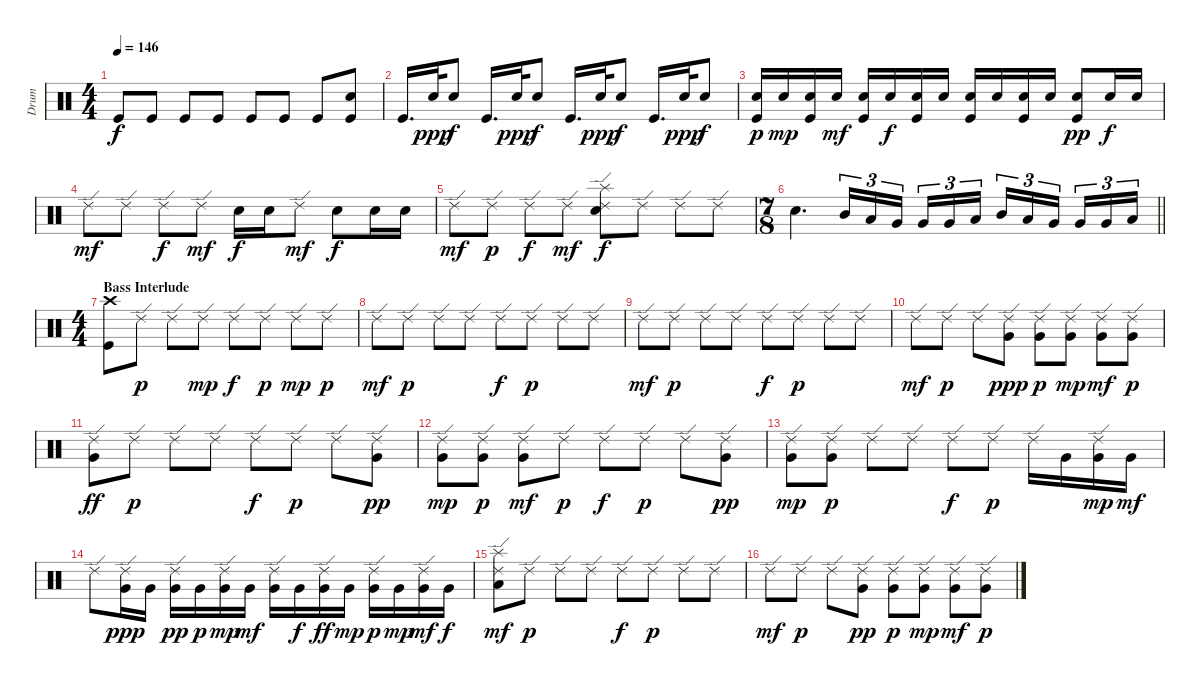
\track ("Drum" "Drum") {instrument percussion}
\staff {score}
\articulation defaults
\ts (4 4)
\tempo 146
\clef neutral
\ks c "Kick (hit)".8{dy f} "Kick (hit)".8 "Kick (hit)".8 "Kick (hit)".8 "Kick (hit)".8 "Kick (hit)".8 "Kick (hit)".8
("Snare (hit) 2" "Kick (hit)").8 |
"Kick (hit)".16{d} "Snare (hit) 2".32{dy ppp} "Snare (hit) 2".8{dy f} "Kick (hit)".16{d} "Snare (hit) 2".32{dy ppp} "Snare (hit) 2".8{dy f} "Kick (hit)".16{d} "Snare (hit) 2".32{dy ppp} "Snare (hit) 2".8{dy f} "Kick (hit)".16{d} "Snare (hit) 2".32{dy ppp} "Snare (hit) 2".8{dy f} |
("Snare (hit) 2" "Kick (hit)").16{dy p} "Snare (hit) 2".16{dy mp} ("Snare (hit) 2" "Kick (hit)").16 "Snare (hit) 2".16{dy mf} ("Snare (hit) 2" "Kick (hit)").16 "Snare (hit) 2".16{dy f} ("Snare (hit) 2" "Kick (hit)").16 "Snare (hit) 2".16 ("Snare (hit) 2" "Kick (hit)").16 "Snare (hit) 2".16 ("Snare (hit) 2" "Kick (hit)").16 "Snare (hit) 2".16 ("Snare (hit) 2" "Kick (hit)").8{dy pp} "Snare (hit) 2".16{dy f} "Snare (hit) 2".16 |
"Ride (edge) 2".8{dy mf} "Ride (edge) 2".8 "Ride (edge) 2".8{dy f} "Ride (edge) 2".8{dy mf} "Snare (hit) 2".16{dy f} "Snare (hit) 2".16 "Ride (edge) 2".8{dy mf} "Snare (hit) 2".8{dy f} "Snare (hit) 2".16 "Snare (hit) 2".16 |
"Ride (edge) 2".8{dy mf} "Ride (edge) 2".8{dy p} "Ride (edge) 2".8{dy f} "Ride (edge) 2".8{dy mf} ("Ride (edge) 2" "Splash (hit)" "Snare (hit) 2").8{dy f} "Ride (edge) 2".8 "Ride (edge) 2".8 "Ride (edge) 2".8 |
\ts (7 8)
\barLineRight lightlight "Snare (hit) 2".4{d} "Mid Tom (hit)".16{tu (3 2)} "Low Tom (hit)".16{tu (3 2)} "Very Low Tom (hit)".16{tu (3 2)} "Very Low Tom (hit)".16{tu (3 2)} "Very Low Tom (hit)".16{tu (3 2)} "Low Tom (hit)".16{tu (3 2)} "Mid Tom (hit)".16{tu (3 2)} "Low Tom (hit)".16{tu (3 2)} "Very Low Tom (hit)".16{tu (3 2)} "Very Low Tom (hit)".16{tu (3 2)} "Very Low Tom (hit)".16{tu (3 2)} "Low Tom (hit)".16{tu (3 2)}
|
\ts (4 4)
\section ("" "Bass Interlude")
("Crash high (hit)" "Kick (hit)").8 "Ride (edge) 2".8{dy p} "Ride (edge) 2".8 "Ride (edge) 2".8{dy mp} "Ride (edge) 2".8{dy f} "Ride (edge) 2".8{dy p} "Ride (edge) 2".8{dy mp} "Ride (edge) 2".8{dy p} |
"Ride (edge) 2".8{dy mf} "Ride (edge) 2".8{dy p} "Ride (edge) 2".8 "Ride (edge) 2".8 "Ride (edge) 2".8{dy f} "Ride (edge) 2".8{dy p} "Ride (edge) 2".8 "Ride (edge) 2".8 |
"Ride (edge) 2".8{dy mf} "Ride (edge) 2".8{dy p} "Ride (edge) 2".8 "Ride (edge) 2".8 "Ride (edge) 2".8{dy f} "Ride (edge) 2".8{dy p} "Ride (edge) 2".8 "Ride (edge) 2".8 |
"Ride (edge) 2".8{dy mf} "Ride (edge) 2".8{dy p} "Ride (edge) 2".8 ("Ride (edge) 2" "Very Low Tom (hit)").8{dy ppp} ("Ride (edge) 2" "Very Low Tom (hit)").8{dy p} ("Ride (edge) 2" "Very Low Tom (hit)").8{dy mp} ("Ride (edge) 2" "Very Low Tom (hit)").8{dy mf} ("Ride (edge) 2" "Very Low Tom (hit)").8{dy p} |
("Ride (edge) 2" "Very Low Tom (hit)").8{dy ff} "Ride (edge) 2".8{dy p} "Ride (edge) 2".8 "Ride (edge) 2".8 "Ride (edge) 2".8{dy f} "Ride (edge) 2".8{dy p} "Ride (edge) 2".8 ("Ride (edge) 2" "Very Low Tom (hit)").8{dy pp} |
("Ride (edge) 2" "Very Low Tom (hit)").8{dy mp} ("Ride (edge) 2" "Very Low Tom (hit)").8{dy p} ("Ride (edge) 2" "Very Low Tom (hit)").8{dy mf} "Ride (edge) 2".8{dy p} "Ride (edge) 2".8{dy f} "Ride (edge) 2".8{dy p} "Ride (edge) 2".8 ("Ride (edge) 2" "Very Low Tom (hit)").8{dy pp} |
("Ride (edge) 2" "Very Low Tom (hit)").8{dy mp} ("Ride (edge) 2" "Very Low Tom (hit)").8{dy p} "Ride (edge) 2".8 "Ride (edge) 2".8 "Ride (edge) 2".8{dy f} "Ride (edge) 2".8{dy p} "Ride (edge) 2".16 "Very Low Tom (hit)".16 ("Ride (edge) 2" "Very Low Tom (hit)").16{dy mp} "Very Low Tom (hit)".16{dy mf} |
"Ride (edge) 2".8 ("Ride (edge) 2" "Very Low Tom (hit)").16{dy ppp} "Very Low Tom (hit)".16 ("Ride (edge) 2" "Very Low Tom (hit)").16{dy pp} "Very Low Tom (hit)".16{dy p} ("Ride (edge) 2" "Very Low Tom (hit)").16{dy mp} "Very Low Tom (hit)".16{dy mf} ("Ride (edge) 2" "Very Low Tom (hit)").16 "Very Low Tom (hit)".16{dy f} ("Ride (edge) 2" "Very Low Tom (hit)").16{dy ff} "Very Low Tom (hit)".16{dy mp} ("Ride (edge) 2" "Very Low Tom (hit)").16{dy p} "Very Low Tom (hit)".16{dy mp} ("Ride (edge) 2" "Very Low Tom (hit)").16{dy mf} "Very Low Tom (hit)".16{dy f} |
("Splash (hit)" "Ride (edge) 2" "Low Floor Tom (hit)").8{dy mf} "Ride (edge) 2".8{dy p} "Ride (edge) 2".8 "Ride (edge) 2".8 "Ride (edge) 2".8{dy f} "Ride (edge) 2".8{dy p} "Ride (edge) 2".8 "Ride (edge) 2".8 |
"Ride (edge) 2".8{dy mf} "Ride (edge) 2".8{dy p} "Ride (edge) 2".8 ("Ride (edge) 2" "Very Low Tom (hit)").8{dy pp} ("Ride (edge) 2" "Very Low Tom (hit)").8{dy p} ("Ride (edge) 2" "Very Low Tom (hit)").8{dy mp} ("Ride (edge) 2" "Very Low Tom (hit)").8{dy mf} ("Ride (edge) 2" "Very Low Tom (hit)").8{dy p}
